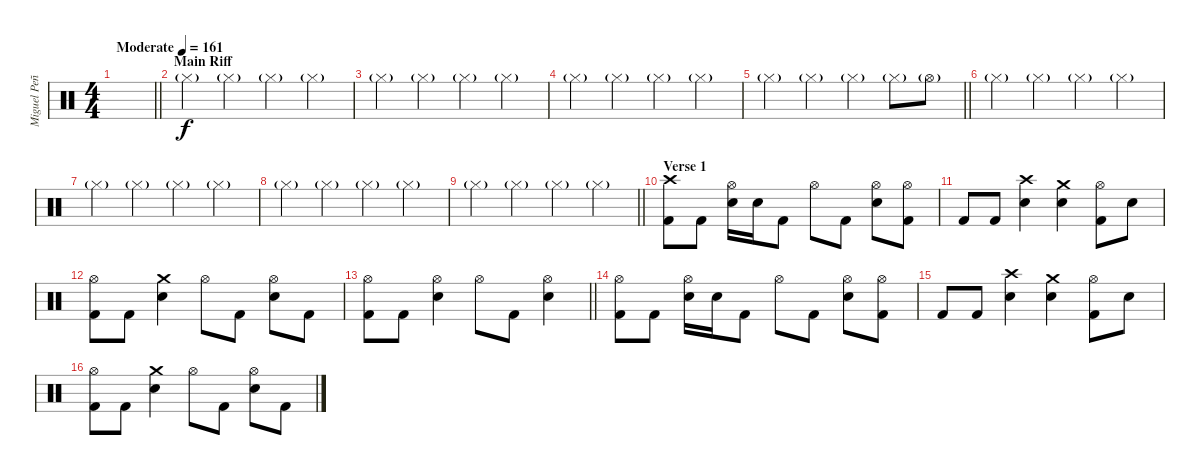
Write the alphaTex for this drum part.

\track ("Miguel Peñas" "Miguel Peñ") {instrument percussion}
\staff {score}
\articulation defaults
\ts (4 4)
\tempo (161 "Moderate")
\clef neutral
\barLineRight lightlight
\ks c
|
\section ("" "Main Riff")
"Hi-Hat (closed)"{g}.4 "Hi-Hat (closed)"{g}.4 "Hi-Hat (closed)"{g}.4 "Hi-Hat (closed)"{g}.4 |
"Hi-Hat (closed)"{g}.4 "Hi-Hat (closed)"{g}.4 "Hi-Hat (closed)"{g}.4 "Hi-Hat (closed)"{g}.4 |
"Hi-Hat (closed)"{g}.4 "Hi-Hat (closed)"{g}.4 "Hi-Hat (closed)"{g}.4 "Hi-Hat (closed)"{g}.4 |
\barLineRight lightlight "Hi-Hat (closed)"{g}.4 "Hi-Hat (closed)"{g}.4 "Hi-Hat (closed)"{g}.4 "Hi-Hat (closed)"{g}.8 "Hi-Hat (open)"{g}.8
|
"Hi-Hat (closed)"{g}.4 "Hi-Hat (closed)"{g}.4 "Hi-Hat (closed)"{g}.4 "Hi-Hat (closed)"{g}.4 |
"Hi-Hat (closed)"{g}.4 "Hi-Hat (closed)"{g}.4 "Hi-Hat (closed)"{g}.4 "Hi-Hat (closed)"{g}.4 |
"Hi-Hat (closed)"{g}.4 "Hi-Hat (closed)"{g}.4 "Hi-Hat (closed)"{g}.4 "Hi-Hat (closed)"{g}.4 |
\barLineRight lightlight "Hi-Hat (closed)"{g}.4 "Hi-Hat (closed)"{g}.4 "Hi-Hat (closed)"{g}.4 "Hi-Hat (closed)"{g}.4
|
\section ("" "Verse 1")
("Crash high (hit)" "Kick (hit) 2").8{dy f} "Kick (hit) 2".8 ("Hi-Hat (open)" "Electric Snare (hit)").16 "Electric Snare (hit)".16 "Kick (hit) 2".8 "Hi-Hat (open)".8 "Kick (hit) 2".8 ("Hi-Hat (open)" "Electric Snare (hit)").8 ("Hi-Hat (open)" "Kick (hit) 2").8 |
"Kick (hit) 2".8 "Kick (hit) 2".8 ("Crash high (hit)" "Electric Snare (hit)").4 ("Crash medium (hit)" "Electric Snare (hit)").4 ("Hi-Hat (open)" "Kick (hit) 2").8 "Electric Snare (hit)".8 |
("Hi-Hat (open)" "Kick (hit) 2").8 "Kick (hit) 2".8 ("Crash medium (hit)" "Electric Snare (hit)").4 "Hi-Hat (open)".8 "Kick (hit) 2".8 ("Hi-Hat (open)" "Electric Snare (hit)").8 "Kick (hit) 2".8 |
\barLineRight lightlight
("Hi-Hat (open)" "Kick (hit) 2").8 "Kick (hit) 2".8 ("Hi-Hat (open)" "Electric Snare (hit)").4 "Hi-Hat (open)".8 "Kick (hit) 2".8 ("Hi-Hat (open)" "Electric Snare (hit)").4 |
("Hi-Hat (open)" "Kick (hit) 2").8 "Kick (hit) 2".8 ("Hi-Hat (open)" "Electric Snare (hit)").16 "Electric Snare (hit)".16 "Kick (hit) 2".8 "Hi-Hat (open)".8 "Kick (hit) 2".8 ("Hi-Hat (open)" "Electric Snare (hit)").8 ("Hi-Hat (open)" "Kick (hit) 2").8 |
"Kick (hit) 2".8 "Kick (hit) 2".8 ("Crash high (hit)" "Electric Snare (hit)").4 ("Crash medium (hit)" "Electric Snare (hit)").4 ("Hi-Hat (open)" "Kick (hit) 2").8 "Electric Snare (hit)".8 |
("Hi-Hat (open)" "Kick (hit) 2").8 "Kick (hit) 2".8 ("Crash medium (hit)" "Electric Snare (hit)").4 "Hi-Hat (open)".8 "Kick (hit) 2".8 ("Hi-Hat (open)" "Electric Snare (hit)").8 "Kick (hit) 2".8
